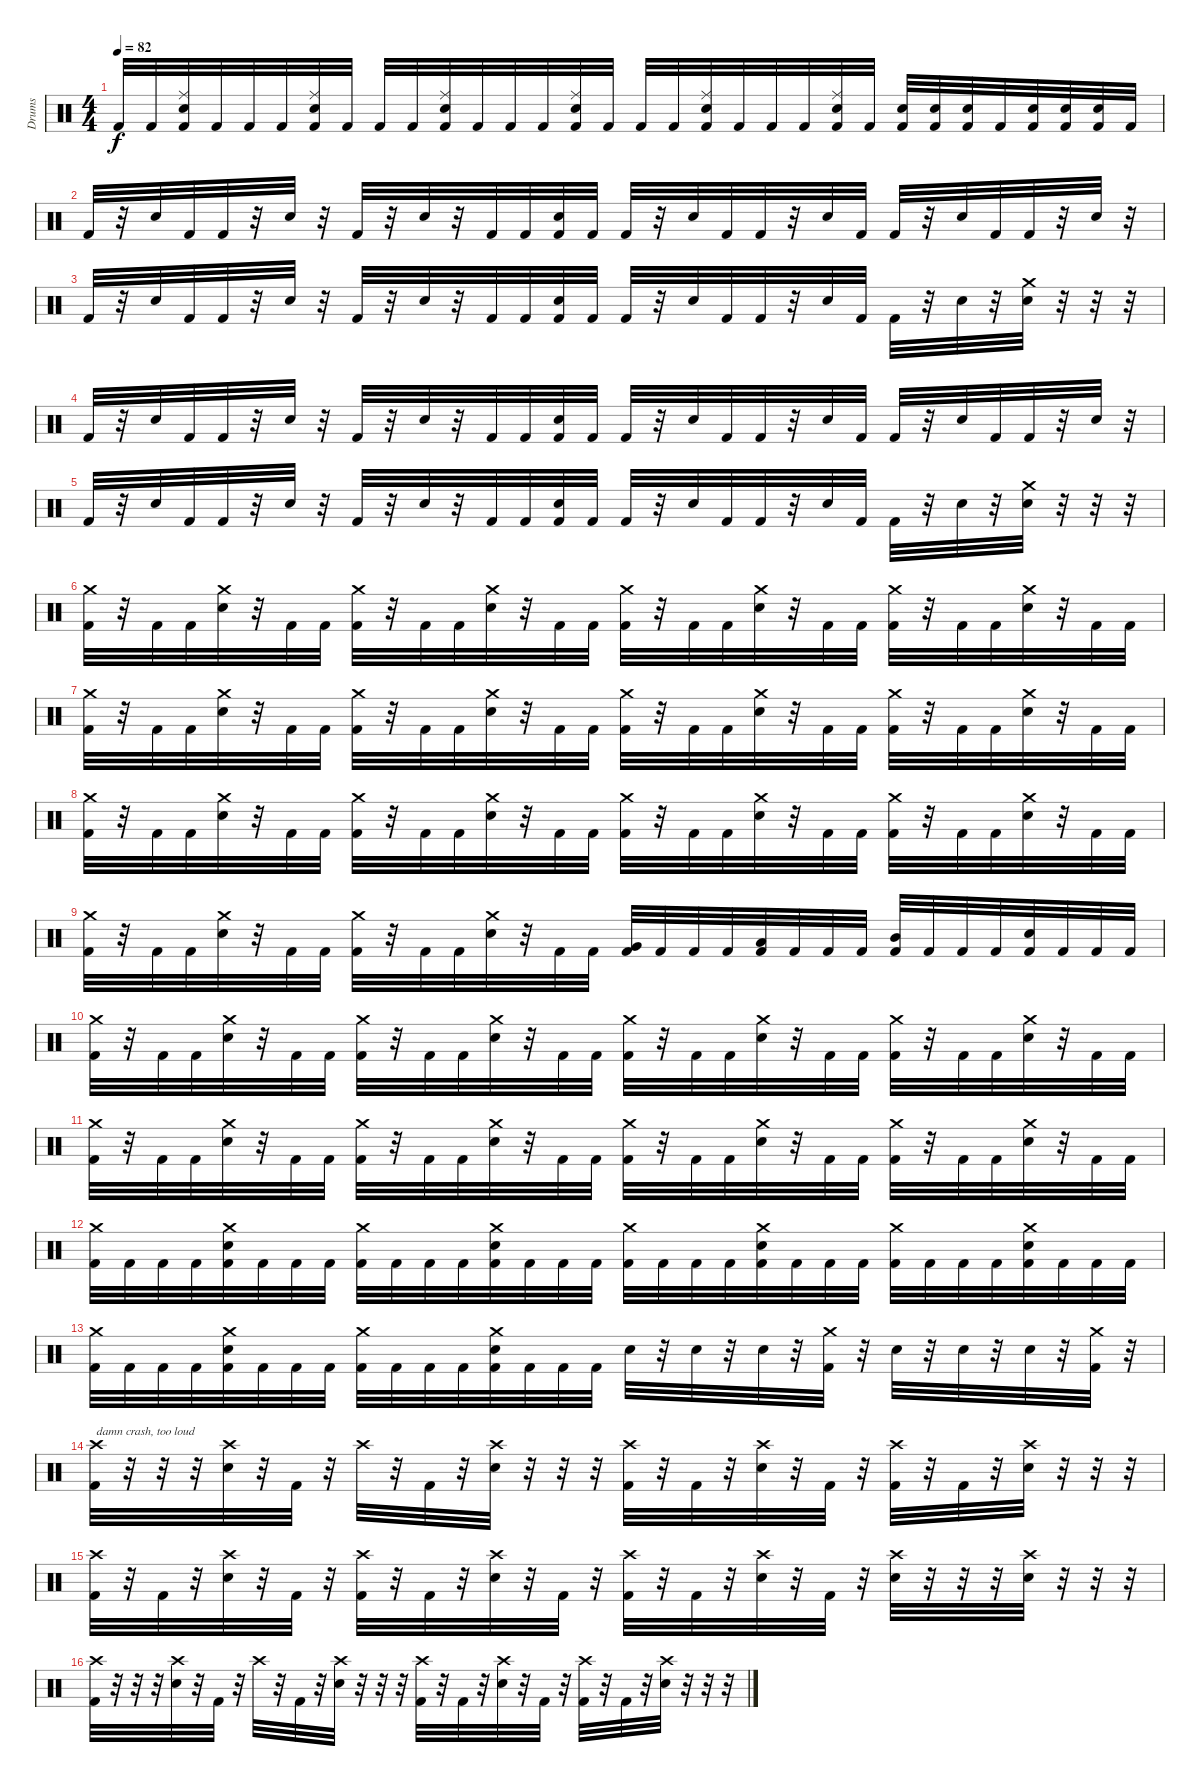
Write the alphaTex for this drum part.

\track ("Drums" "Drums") {instrument percussion}
\staff {score}
\articulation defaults
\ts (4 4)
\tempo 82
\clef neutral
\ks c "Kick (hit) 2".32{dy f} "Kick (hit) 2".32
("Ride (middle)" "Electric Snare (hit)" "Kick (hit) 2").32 "Kick (hit) 2".32 "Kick (hit) 2".32 "Kick (hit) 2".32 ("Ride (middle)" "Electric Snare (hit)" "Kick (hit) 2").32 "Kick (hit) 2".32 "Kick (hit) 2".32 "Kick (hit) 2".32 ("Ride (middle)" "Electric Snare (hit)" "Kick (hit) 2").32 "Kick (hit) 2".32 "Kick (hit) 2".32 "Kick (hit) 2".32 ("Ride (middle)" "Electric Snare (hit)" "Kick (hit) 2").32 "Kick (hit) 2".32 "Kick (hit) 2".32 "Kick (hit) 2".32 ("Ride (middle)" "Electric Snare (hit)" "Kick (hit) 2").32 "Kick (hit) 2".32 "Kick (hit) 2".32 "Kick (hit) 2".32 ("Ride (middle)" "Electric Snare (hit)" "Kick (hit) 2").32 "Kick (hit) 2".32 ("Electric Snare (hit)" "Kick (hit) 2").32 ("Electric Snare (hit)" "Kick (hit) 2").32 ("Electric Snare (hit)" "Kick (hit) 2").32 "Kick (hit) 2".32 ("Electric Snare (hit)" "Kick (hit) 2").32 ("Electric Snare (hit)" "Kick (hit) 2").32 ("Electric Snare (hit)" "Kick (hit) 2").32 "Kick (hit) 2".32 |
"Kick (hit) 2".32 r.32 "Electric Snare (hit)".32 "Kick (hit) 2".32 "Kick (hit) 2".32 r.32 "Electric Snare (hit)".32 r.32 "Kick (hit) 2".32 r.32 "Electric Snare (hit)".32 r.32 "Kick (hit) 2".32 "Kick (hit) 2".32 ("Electric Snare (hit)" "Kick (hit) 2").32 "Kick (hit) 2".32 "Kick (hit) 2".32 r.32 "Electric Snare (hit)".32 "Kick (hit) 2".32 "Kick (hit) 2".32 r.32 "Electric Snare (hit)".32 "Kick (hit) 2".32 "Kick (hit) 2".32 r.32 "Electric Snare (hit)".32 "Kick (hit) 2".32 "Kick (hit) 2".32 r.32 "Electric Snare (hit)".32 r.32 |
"Kick (hit) 2".32 r.32 "Electric Snare (hit)".32 "Kick (hit) 2".32 "Kick (hit) 2".32 r.32 "Electric Snare (hit)".32 r.32 "Kick (hit) 2".32 r.32 "Electric Snare (hit)".32 r.32 "Kick (hit) 2".32 "Kick (hit) 2".32 ("Electric Snare (hit)" "Kick (hit) 2").32 "Kick (hit) 2".32 "Kick (hit) 2".32 r.32 "Electric Snare (hit)".32 "Kick (hit) 2".32 "Kick (hit) 2".32 r.32 "Electric Snare (hit)".32 "Kick (hit) 2".32 "Kick (hit) 2".32 r.32 "Electric Snare (hit)".32 r.32 ("Crash medium (hit)" "Electric Snare (hit)").32 r.32 r.32 r.32 |
"Kick (hit) 2".32 r.32 "Electric Snare (hit)".32 "Kick (hit) 2".32 "Kick (hit) 2".32 r.32 "Electric Snare (hit)".32 r.32 "Kick (hit) 2".32 r.32 "Electric Snare (hit)".32 r.32 "Kick (hit) 2".32 "Kick (hit) 2".32 ("Electric Snare (hit)" "Kick (hit) 2").32 "Kick (hit) 2".32 "Kick (hit) 2".32 r.32 "Electric Snare (hit)".32 "Kick (hit) 2".32 "Kick (hit) 2".32 r.32 "Electric Snare (hit)".32 "Kick (hit) 2".32 "Kick (hit) 2".32 r.32 "Electric Snare (hit)".32 "Kick (hit) 2".32 "Kick (hit) 2".32 r.32 "Electric Snare (hit)".32 r.32 |
"Kick (hit) 2".32 r.32 "Electric Snare (hit)".32 "Kick (hit) 2".32 "Kick (hit) 2".32 r.32 "Electric Snare (hit)".32 r.32 "Kick (hit) 2".32 r.32 "Electric Snare (hit)".32 r.32 "Kick (hit) 2".32 "Kick (hit) 2".32 ("Electric Snare (hit)" "Kick (hit) 2").32 "Kick (hit) 2".32 "Kick (hit) 2".32 r.32 "Electric Snare (hit)".32 "Kick (hit) 2".32 "Kick (hit) 2".32 r.32 "Electric Snare (hit)".32 "Kick (hit) 2".32 "Kick (hit) 2".32 r.32 "Electric Snare (hit)".32 r.32 ("Crash medium (hit)" "Electric Snare (hit)").32 r.32 r.32 r.32 |
("Crash medium (hit)" "Kick (hit) 2").32 r.32 "Kick (hit) 2".32 "Kick (hit) 2".32 ("Crash medium (hit)" "Electric Snare (hit)").32 r.32 "Kick (hit) 2".32 "Kick (hit) 2".32 ("Crash medium (hit)" "Kick (hit) 2").32 r.32 "Kick (hit) 2".32 "Kick (hit) 2".32 ("Crash medium (hit)" "Electric Snare (hit)").32 r.32 "Kick (hit) 2".32 "Kick (hit) 2".32 ("Crash medium (hit)" "Kick (hit) 2").32 r.32 "Kick (hit) 2".32 "Kick (hit) 2".32 ("Crash medium (hit)" "Electric Snare (hit)").32 r.32 "Kick (hit) 2".32 "Kick (hit) 2".32 ("Crash medium (hit)" "Kick (hit) 2").32 r.32 "Kick (hit) 2".32 "Kick (hit) 2".32 ("Crash medium (hit)" "Electric Snare (hit)").32 r.32 "Kick (hit) 2".32 "Kick (hit) 2".32 |
("Crash medium (hit)" "Kick (hit) 2").32 r.32 "Kick (hit) 2".32 "Kick (hit) 2".32 ("Crash medium (hit)" "Electric Snare (hit)").32 r.32 "Kick (hit) 2".32 "Kick (hit) 2".32 ("Crash medium (hit)" "Kick (hit) 2").32 r.32 "Kick (hit) 2".32 "Kick (hit) 2".32 ("Crash medium (hit)" "Electric Snare (hit)").32 r.32 "Kick (hit) 2".32 "Kick (hit) 2".32 ("Crash medium (hit)" "Kick (hit) 2").32 r.32 "Kick (hit) 2".32 "Kick (hit) 2".32 ("Crash medium (hit)" "Electric Snare (hit)").32 r.32 "Kick (hit) 2".32 "Kick (hit) 2".32 ("Crash medium (hit)" "Kick (hit) 2").32 r.32 "Kick (hit) 2".32 "Kick (hit) 2".32 ("Crash medium (hit)" "Electric Snare (hit)").32 r.32 "Kick (hit) 2".32 "Kick (hit) 2".32 |
("Crash medium (hit)" "Kick (hit) 2").32 r.32 "Kick (hit) 2".32 "Kick (hit) 2".32 ("Crash medium (hit)" "Electric Snare (hit)").32 r.32 "Kick (hit) 2".32 "Kick (hit) 2".32 ("Crash medium (hit)" "Kick (hit) 2").32 r.32 "Kick (hit) 2".32 "Kick (hit) 2".32 ("Crash medium (hit)" "Electric Snare (hit)").32 r.32 "Kick (hit) 2".32 "Kick (hit) 2".32 ("Crash medium (hit)" "Kick (hit) 2").32 r.32 "Kick (hit) 2".32 "Kick (hit) 2".32 ("Crash medium (hit)" "Electric Snare (hit)").32 r.32 "Kick (hit) 2".32 "Kick (hit) 2".32 ("Crash medium (hit)" "Kick (hit) 2").32 r.32 "Kick (hit) 2".32 "Kick (hit) 2".32 ("Crash medium (hit)" "Electric Snare (hit)").32 r.32 "Kick (hit) 2".32 "Kick (hit) 2".32 |
("Crash medium (hit)" "Kick (hit) 2").32 r.32 "Kick (hit) 2".32 "Kick (hit) 2".32 ("Crash medium (hit)" "Electric Snare (hit)").32 r.32 "Kick (hit) 2".32 "Kick (hit) 2".32 ("Crash medium (hit)" "Kick (hit) 2").32 r.32 "Kick (hit) 2".32 "Kick (hit) 2".32 ("Crash medium (hit)" "Electric Snare (hit)").32 r.32 "Kick (hit) 2".32 "Kick (hit) 2".32 ("Very Low Tom (hit)" "Kick (hit) 2").32 "Kick (hit) 2".32 "Kick (hit) 2".32 "Kick (hit) 2".32 ("Low Tom (hit)" "Kick (hit) 2").32 "Kick (hit) 2".32 "Kick (hit) 2".32 "Kick (hit) 2".32 ("Mid Tom (hit)" "Kick (hit) 2").32 "Kick (hit) 2".32 "Kick (hit) 2".32 "Kick (hit) 2".32 ("Electric Snare (hit)" "Kick (hit) 2").32 "Kick (hit) 2".32 "Kick (hit) 2".32 "Kick (hit) 2".32 |
("Crash medium (hit)" "Kick (hit) 2").32 r.32 "Kick (hit) 2".32 "Kick (hit) 2".32 ("Crash medium (hit)" "Electric Snare (hit)").32 r.32 "Kick (hit) 2".32 "Kick (hit) 2".32 ("Crash medium (hit)" "Kick (hit) 2").32 r.32 "Kick (hit) 2".32 "Kick (hit) 2".32 ("Crash medium (hit)" "Electric Snare (hit)").32 r.32 "Kick (hit) 2".32 "Kick (hit) 2".32 ("Crash medium (hit)" "Kick (hit) 2").32 r.32 "Kick (hit) 2".32 "Kick (hit) 2".32 ("Crash medium (hit)" "Electric Snare (hit)").32 r.32 "Kick (hit) 2".32 "Kick (hit) 2".32 ("Crash medium (hit)" "Kick (hit) 2").32 r.32 "Kick (hit) 2".32 "Kick (hit) 2".32 ("Crash medium (hit)" "Electric Snare (hit)").32 r.32 "Kick (hit) 2".32 "Kick (hit) 2".32 |
("Crash medium (hit)" "Kick (hit) 2").32 r.32 "Kick (hit) 2".32 "Kick (hit) 2".32 ("Crash medium (hit)" "Electric Snare (hit)").32 r.32 "Kick (hit) 2".32 "Kick (hit) 2".32 ("Crash medium (hit)" "Kick (hit) 2").32 r.32 "Kick (hit) 2".32 "Kick (hit) 2".32 ("Crash medium (hit)" "Electric Snare (hit)").32 r.32 "Kick (hit) 2".32 "Kick (hit) 2".32 ("Crash medium (hit)" "Kick (hit) 2").32 r.32 "Kick (hit) 2".32 "Kick (hit) 2".32 ("Crash medium (hit)" "Electric Snare (hit)").32 r.32 "Kick (hit) 2".32 "Kick (hit) 2".32 ("Crash medium (hit)" "Kick (hit) 2").32 r.32 "Kick (hit) 2".32 "Kick (hit) 2".32 ("Crash medium (hit)" "Electric Snare (hit)").32 r.32 "Kick (hit) 2".32 "Kick (hit) 2".32 |
("Crash medium (hit)" "Kick (hit) 2").32 "Kick (hit) 2".32 "Kick (hit) 2".32 "Kick (hit) 2".32 ("Crash medium (hit)" "Electric Snare (hit)" "Kick (hit) 2").32 "Kick (hit) 2".32 "Kick (hit) 2".32 "Kick (hit) 2".32 ("Crash medium (hit)" "Kick (hit) 2").32 "Kick (hit) 2".32 "Kick (hit) 2".32 "Kick (hit) 2".32 ("Crash medium (hit)" "Electric Snare (hit)" "Kick (hit) 2").32 "Kick (hit) 2".32 "Kick (hit) 2".32 "Kick (hit) 2".32 ("Crash medium (hit)" "Kick (hit) 2").32 "Kick (hit) 2".32 "Kick (hit) 2".32 "Kick (hit) 2".32 ("Crash medium (hit)" "Electric Snare (hit)" "Kick (hit) 2").32 "Kick (hit) 2".32 "Kick (hit) 2".32 "Kick (hit) 2".32 ("Crash medium (hit)" "Kick (hit) 2").32 "Kick (hit) 2".32 "Kick (hit) 2".32 "Kick (hit) 2".32 ("Crash medium (hit)" "Electric Snare (hit)" "Kick (hit) 2").32 "Kick (hit) 2".32 "Kick (hit) 2".32 "Kick (hit) 2".32 |
("Crash medium (hit)" "Kick (hit) 2").32 "Kick (hit) 2".32 "Kick (hit) 2".32 "Kick (hit) 2".32 ("Crash medium (hit)" "Electric Snare (hit)" "Kick (hit) 2").32 "Kick (hit) 2".32 "Kick (hit) 2".32 "Kick (hit) 2".32 ("Crash medium (hit)" "Kick (hit) 2").32 "Kick (hit) 2".32 "Kick (hit) 2".32 "Kick (hit) 2".32 ("Crash medium (hit)" "Electric Snare (hit)" "Kick (hit) 2").32 "Kick (hit) 2".32 "Kick (hit) 2".32 "Kick (hit) 2".32 "Electric Snare (hit)".32 r.32 "Electric Snare (hit)".32 r.32 "Electric Snare (hit)".32 r.32 ("Crash medium (hit)" "Kick (hit) 2").32 r.32 "Electric Snare (hit)".32 r.32 "Electric Snare (hit)".32 r.32 "Electric Snare (hit)".32 r.32 ("Crash medium (hit)" "Kick (hit) 2").32 r.32 |
("Crash high (hit)" "Kick (hit) 2").32{txt "damn crash, too loud"} r.32 r.32 r.32 ("Crash high (hit)" "Electric Snare (hit)").32 r.32 "Kick (hit) 2".32 r.32 "Crash high (hit)".32 r.32 "Kick (hit) 2".32 r.32 ("Crash high (hit)" "Electric Snare (hit)").32 r.32 r.32 r.32 ("Crash high (hit)" "Kick (hit) 2").32 r.32 "Kick (hit) 2".32 r.32 ("Crash high (hit)" "Electric Snare (hit)").32 r.32 "Kick (hit) 2".32 r.32 ("Crash high (hit)" "Kick (hit) 2").32 r.32 "Kick (hit) 2".32 r.32 ("Crash high (hit)" "Electric Snare (hit)").32 r.32 r.32 r.32 |
("Crash high (hit)" "Kick (hit) 2").32 r.32 "Kick (hit) 2".32 r.32 ("Crash high (hit)" "Electric Snare (hit)").32 r.32 "Kick (hit) 2".32 r.32 ("Crash high (hit)" "Kick (hit) 2").32 r.32 "Kick (hit) 2".32 r.32 ("Crash high (hit)" "Electric Snare (hit)").32 r.32 "Kick (hit) 2".32 r.32 ("Crash high (hit)" "Kick (hit) 2").32 r.32 "Kick (hit) 2".32 r.32 ("Crash high (hit)" "Electric Snare (hit)").32 r.32 "Kick (hit) 2".32 r.32 ("Crash high (hit)" "Electric Snare (hit)").32 r.32 r.32 r.32 ("Crash high (hit)" "Electric Snare (hit)").32 r.32 r.32 r.32 |
("Crash high (hit)" "Kick (hit) 2").32 r.32 r.32 r.32 ("Crash high (hit)" "Electric Snare (hit)").32 r.32 "Kick (hit) 2".32 r.32 "Crash high (hit)".32 r.32 "Kick (hit) 2".32 r.32 ("Crash high (hit)" "Electric Snare (hit)").32 r.32 r.32 r.32 ("Crash high (hit)" "Kick (hit) 2").32 r.32 "Kick (hit) 2".32 r.32 ("Crash high (hit)" "Electric Snare (hit)").32 r.32 "Kick (hit) 2".32 r.32 ("Crash high (hit)" "Kick (hit) 2").32 r.32 "Kick (hit) 2".32 r.32 ("Crash high (hit)" "Electric Snare (hit)").32 r.32 r.32 r.32
